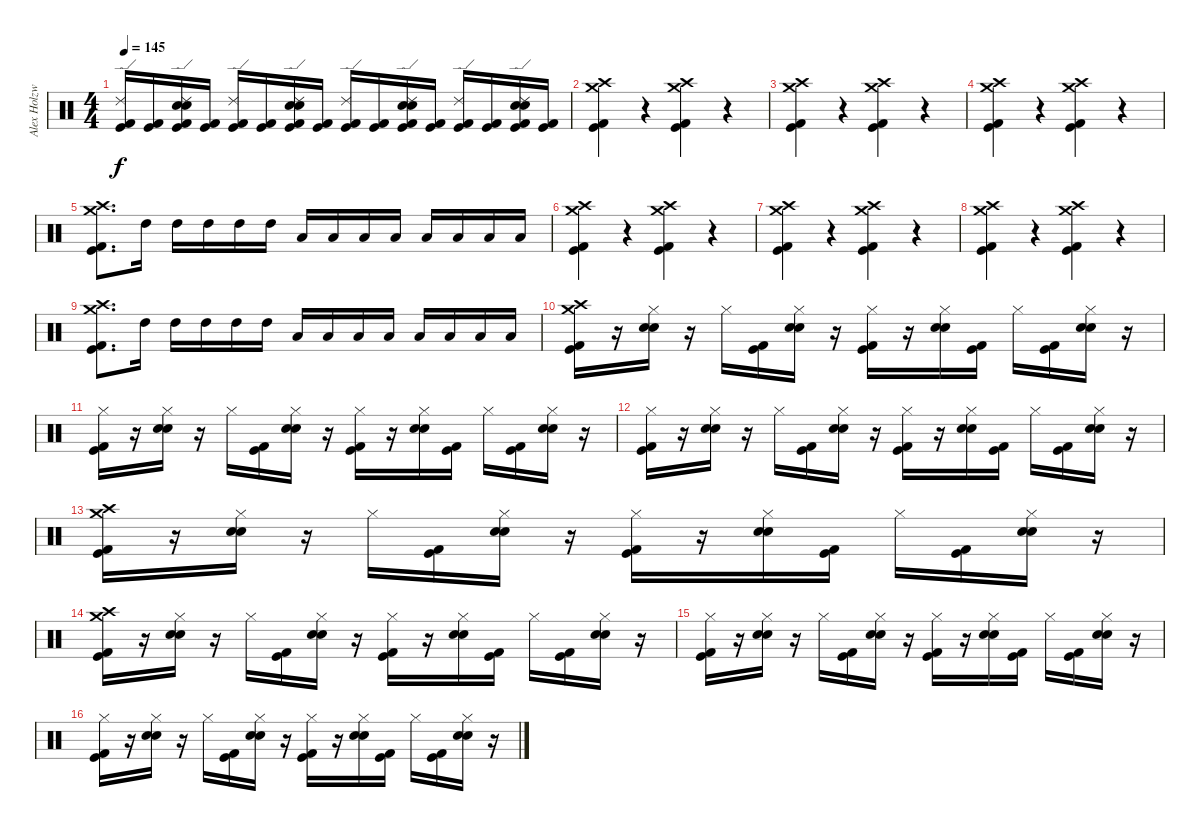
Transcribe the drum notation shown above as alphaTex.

\track ("Alex Holzwarth" "Alex Holzw") {instrument percussion}
\staff {score}
\articulation defaults
\ts (4 4)
\tempo 145
\clef neutral
\ks c
("Ride (edge) 2" "Kick (hit) 2" "Kick (hit)").16{dy f} ("Kick (hit) 2" "Kick (hit)").16 ("Ride (edge) 2" "Electric Snare (hit)" "Snare (hit) 2" "Kick (hit) 2" "Kick (hit)").16 ("Kick (hit) 2" "Kick (hit)").16 ("Ride (edge) 2" "Kick (hit) 2" "Kick (hit)").16 ("Kick (hit) 2" "Kick (hit)").16 ("Ride (edge) 2" "Electric Snare (hit)" "Snare (hit) 2" "Kick (hit) 2" "Kick (hit)").16 ("Kick (hit) 2" "Kick (hit)").16 ("Ride (edge) 2" "Kick (hit) 2" "Kick (hit)").16 ("Kick (hit) 2" "Kick (hit)").16 ("Ride (edge) 2" "Electric Snare (hit)" "Snare (hit) 2" "Kick (hit) 2" "Kick (hit)").16 ("Kick (hit) 2" "Kick (hit)").16 ("Ride (edge) 2" "Kick (hit) 2" "Kick (hit)").16 ("Kick (hit) 2" "Kick (hit)").16 ("Ride (edge) 2" "Electric Snare (hit)" "Snare (hit) 2" "Kick (hit) 2" "Kick (hit)").16 ("Kick (hit) 2" "Kick (hit)").16 |
("Crash high (hit)" "Crash medium (hit)" "Kick (hit) 2" "Kick (hit)").4 r.4 ("Crash medium (hit)" "Crash high (hit)" "Kick (hit) 2" "Kick (hit)").4 r.4 |
("Crash high (hit)" "Crash medium (hit)" "Kick (hit) 2" "Kick (hit)").4 r.4 ("Crash medium (hit)" "Kick (hit) 2" "Kick (hit)" "Crash high (hit)").4 r.4 |
("Crash high (hit)" "Crash medium (hit)" "Kick (hit) 2" "Kick (hit)").4 r.4 ("Crash high (hit)" "Crash medium (hit)" "Kick (hit)" "Kick (hit) 2").4 r.4 |
("Crash high (hit)" "Crash medium (hit)" "Kick (hit) 2" "Kick (hit)").8{d} "High Tom (hit)".16 "High Tom (hit)".16 "High Tom (hit)".16 "High Tom (hit)".16 "High Tom (hit)".16 "Low Tom (hit)".16 "Low Tom (hit)".16 "Low Tom (hit)".16 "Low Tom (hit)".16 "Low Floor Tom (hit)".16 "Low Floor Tom (hit)".16 "Low Floor Tom (hit)".16 "Low Floor Tom (hit)".16 |
("Crash high (hit)" "Crash medium (hit)" "Kick (hit) 2" "Kick (hit)").4 r.4 ("Crash medium (hit)" "Crash high (hit)" "Kick (hit) 2" "Kick (hit)").4 r.4 |
("Crash high (hit)" "Crash medium (hit)" "Kick (hit) 2" "Kick (hit)").4 r.4 ("Crash medium (hit)" "Kick (hit) 2" "Kick (hit)" "Crash high (hit)").4 r.4 |
("Crash high (hit)" "Crash medium (hit)" "Kick (hit) 2" "Kick (hit)").4 r.4 ("Crash high (hit)" "Crash medium (hit)" "Kick (hit)" "Kick (hit) 2").4 r.4 |
("Crash high (hit)" "Crash medium (hit)" "Kick (hit) 2" "Kick (hit)").8{d} "High Tom (hit)".16 "High Tom (hit)".16 "High Tom (hit)".16 "High Tom (hit)".16 "High Tom (hit)".16 "Low Tom (hit)".16 "Low Tom (hit)".16 "Low Tom (hit)".16 "Low Tom (hit)".16 "Low Floor Tom (hit)".16 "Low Floor Tom (hit)".16 "Low Floor Tom (hit)".16 "Low Floor Tom (hit)".16 |
("Crash medium (hit)" "Crash high (hit)" "Kick (hit) 2" "Kick (hit)").16 r.16 ("Hi-Hat (closed)" "Electric Snare (hit)" "Snare (hit) 2").16 r.16 "Hi-Hat (closed)".16 ("Kick (hit) 2" "Kick (hit)").16 ("Electric Snare (hit)" "Snare (hit) 2" "Hi-Hat (closed)").16 r.16 ("Hi-Hat (closed)" "Kick (hit) 2" "Kick (hit)").16 r.16 ("Hi-Hat (closed)" "Electric Snare (hit)" "Snare (hit) 2").16 ("Kick (hit) 2" "Kick (hit)").16 "Hi-Hat (closed)".16 ("Kick (hit) 2" "Kick (hit)").16 ("Hi-Hat (closed)" "Electric Snare (hit)" "Snare (hit) 2").16 r.16 |
("Hi-Hat (closed)" "Kick (hit) 2" "Kick (hit)").16 r.16 ("Hi-Hat (closed)" "Electric Snare (hit)" "Snare (hit) 2").16 r.16 "Hi-Hat (closed)".16 ("Kick (hit) 2" "Kick (hit)").16 ("Electric Snare (hit)" "Snare (hit) 2" "Hi-Hat (closed)").16 r.16 ("Hi-Hat (closed)" "Kick (hit) 2" "Kick (hit)").16 r.16 ("Hi-Hat (closed)" "Electric Snare (hit)" "Snare (hit) 2").16 ("Kick (hit) 2" "Kick (hit)").16 "Hi-Hat (closed)".16 ("Kick (hit) 2" "Kick (hit)").16 ("Hi-Hat (closed)" "Electric Snare (hit)" "Snare (hit) 2").16 r.16 |
("Hi-Hat (closed)" "Kick (hit) 2" "Kick (hit)").16 r.16 ("Hi-Hat (closed)" "Electric Snare (hit)" "Snare (hit) 2").16 r.16 "Hi-Hat (closed)".16 ("Kick (hit) 2" "Kick (hit)").16 ("Electric Snare (hit)" "Snare (hit) 2" "Hi-Hat (closed)").16 r.16 ("Hi-Hat (closed)" "Kick (hit) 2" "Kick (hit)").16 r.16 ("Hi-Hat (closed)" "Electric Snare (hit)" "Snare (hit) 2").16 ("Kick (hit) 2" "Kick (hit)").16 "Hi-Hat (closed)".16 ("Kick (hit) 2" "Kick (hit)").16 ("Hi-Hat (closed)" "Electric Snare (hit)" "Snare (hit) 2").16 r.16 |
("Crash medium (hit)" "Crash high (hit)" "Kick (hit) 2" "Kick (hit)").16 r.16 ("Hi-Hat (closed)" "Electric Snare (hit)" "Snare (hit) 2").16 r.16 "Hi-Hat (closed)".16 ("Kick (hit) 2" "Kick (hit)").16 ("Electric Snare (hit)" "Snare (hit) 2" "Hi-Hat (closed)").16 r.16 ("Hi-Hat (closed)" "Kick (hit) 2" "Kick (hit)").16 r.16 ("Hi-Hat (closed)" "Electric Snare (hit)" "Snare (hit) 2").16 ("Kick (hit) 2" "Kick (hit)").16 "Hi-Hat (closed)".16 ("Kick (hit) 2" "Kick (hit)").16 ("Hi-Hat (closed)" "Electric Snare (hit)" "Snare (hit) 2").16 r.16 |
("Crash medium (hit)" "Crash high (hit)" "Kick (hit) 2" "Kick (hit)").16 r.16 ("Hi-Hat (closed)" "Electric Snare (hit)" "Snare (hit) 2").16 r.16 "Hi-Hat (closed)".16 ("Kick (hit) 2" "Kick (hit)").16 ("Electric Snare (hit)" "Snare (hit) 2" "Hi-Hat (closed)").16 r.16 ("Hi-Hat (closed)" "Kick (hit) 2" "Kick (hit)").16 r.16 ("Hi-Hat (closed)" "Electric Snare (hit)" "Snare (hit) 2").16 ("Kick (hit) 2" "Kick (hit)").16 "Hi-Hat (closed)".16 ("Kick (hit) 2" "Kick (hit)").16 ("Hi-Hat (closed)" "Electric Snare (hit)" "Snare (hit) 2").16 r.16 |
("Hi-Hat (closed)" "Kick (hit) 2" "Kick (hit)").16 r.16 ("Hi-Hat (closed)" "Electric Snare (hit)" "Snare (hit) 2").16 r.16 "Hi-Hat (closed)".16 ("Kick (hit) 2" "Kick (hit)").16 ("Electric Snare (hit)" "Snare (hit) 2" "Hi-Hat (closed)").16 r.16 ("Hi-Hat (closed)" "Kick (hit) 2" "Kick (hit)").16 r.16 ("Hi-Hat (closed)" "Electric Snare (hit)" "Snare (hit) 2").16 ("Kick (hit) 2" "Kick (hit)").16 "Hi-Hat (closed)".16 ("Kick (hit) 2" "Kick (hit)").16 ("Hi-Hat (closed)" "Electric Snare (hit)" "Snare (hit) 2").16 r.16 |
("Hi-Hat (closed)" "Kick (hit) 2" "Kick (hit)").16 r.16 ("Hi-Hat (closed)" "Electric Snare (hit)" "Snare (hit) 2").16 r.16 "Hi-Hat (closed)".16 ("Kick (hit) 2" "Kick (hit)").16 ("Electric Snare (hit)" "Snare (hit) 2" "Hi-Hat (closed)").16 r.16 ("Hi-Hat (closed)" "Kick (hit) 2" "Kick (hit)").16 r.16 ("Hi-Hat (closed)" "Electric Snare (hit)" "Snare (hit) 2").16 ("Kick (hit) 2" "Kick (hit)").16 "Hi-Hat (closed)".16 ("Kick (hit) 2" "Kick (hit)").16 ("Hi-Hat (closed)" "Electric Snare (hit)" "Snare (hit) 2").16 r.16
